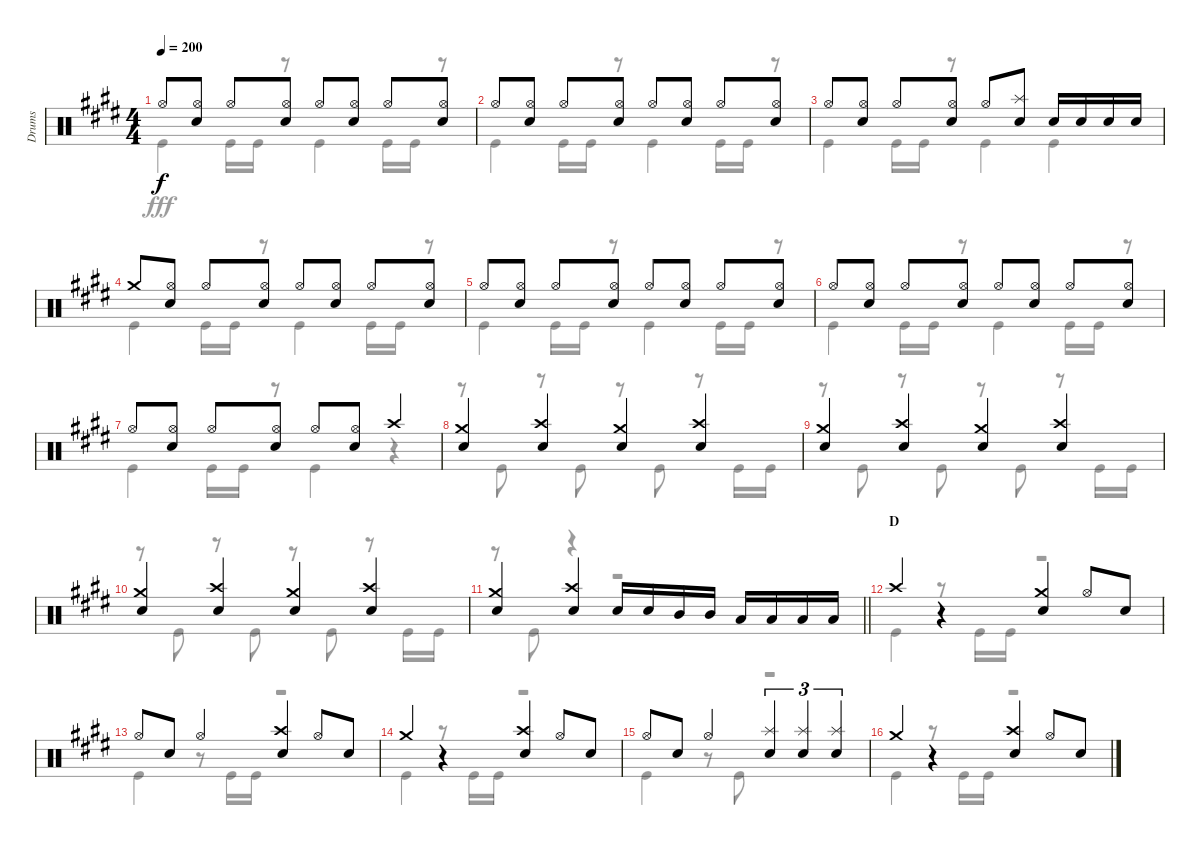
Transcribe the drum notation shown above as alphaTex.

\track ("Drums" "Drums") {instrument percussion}
\staff {score}
\articulation defaults
\voice
\ts (4 4)
\tempo 200
\clef neutral
\ks e "Hi-Hat (open)".8{dy f}
("Hi-Hat (open)" "Snare (hit) 2").8 "Hi-Hat (open)".8 ("Hi-Hat (open)" "Snare (hit) 2").8 "Hi-Hat (open)".8 ("Hi-Hat (open)" "Snare (hit) 2").8 "Hi-Hat (open)".8 ("Hi-Hat (open)" "Snare (hit) 2").8 |
"Hi-Hat (open)".8 ("Hi-Hat (open)" "Snare (hit) 2").8 "Hi-Hat (open)".8 ("Hi-Hat (open)" "Snare (hit) 2").8 "Hi-Hat (open)".8 ("Hi-Hat (open)" "Snare (hit) 2").8 "Hi-Hat (open)".8 ("Hi-Hat (open)" "Snare (hit) 2").8 |
"Hi-Hat (open)".8 ("Hi-Hat (open)" "Snare (hit) 2").8 "Hi-Hat (open)".8 ("Hi-Hat (open)" "Snare (hit) 2").8 "Hi-Hat (open)".8 ("Splash (hit)" "Snare (hit) 2").8 "Snare (hit) 2".16 "Snare (hit) 2".16 "Snare (hit) 2".16 "Snare (hit) 2".16 |
"Crash medium (hit)".8 ("Hi-Hat (open)" "Snare (hit) 2").8 "Hi-Hat (open)".8 ("Hi-Hat (open)" "Snare (hit) 2").8 "Hi-Hat (open)".8 ("Hi-Hat (open)" "Snare (hit) 2").8 "Hi-Hat (open)".8 ("Hi-Hat (open)" "Snare (hit) 2").8 |
"Hi-Hat (open)".8 ("Hi-Hat (open)" "Snare (hit) 2").8 "Hi-Hat (open)".8 ("Hi-Hat (open)" "Snare (hit) 2").8 "Hi-Hat (open)".8 ("Hi-Hat (open)" "Snare (hit) 2").8 "Hi-Hat (open)".8 ("Hi-Hat (open)" "Snare (hit) 2").8 |
"Hi-Hat (open)".8 ("Hi-Hat (open)" "Snare (hit) 2").8 "Hi-Hat (open)".8 ("Hi-Hat (open)" "Snare (hit) 2").8 "Hi-Hat (open)".8 ("Hi-Hat (open)" "Snare (hit) 2").8 "Hi-Hat (open)".8 ("Hi-Hat (open)" "Snare (hit) 2").8 |
"Hi-Hat (open)".8 ("Hi-Hat (open)" "Snare (hit) 2").8 "Hi-Hat (open)".8 ("Hi-Hat (open)" "Snare (hit) 2").8 "Hi-Hat (open)".8 ("Hi-Hat (open)" "Snare (hit) 2").8 "Crash high (hit)".4 |
("Crash medium (hit)" "Snare (hit) 2").4 ("Crash high (hit)" "Snare (hit) 2").4 ("Crash medium (hit)" "Snare (hit) 2").4 ("Crash high (hit)" "Snare (hit) 2").4 |
("Crash medium (hit)" "Snare (hit) 2").4 ("Crash high (hit)" "Snare (hit) 2").4 ("Crash medium (hit)" "Snare (hit) 2").4 ("Crash high (hit)" "Snare (hit) 2").4 |
("Crash medium (hit)" "Snare (hit) 2").4 ("Crash high (hit)" "Snare (hit) 2").4 ("Crash medium (hit)" "Snare (hit) 2").4 ("Crash high (hit)" "Snare (hit) 2").4 |
\barLineRight lightlight
("Crash medium (hit)" "Snare (hit) 2").4 ("Crash high (hit)" "Snare (hit) 2").4 "Snare (hit) 2".16 "Snare (hit) 2".16 "Mid Tom (hit)".16 "Mid Tom (hit)".16 "Low Tom (hit)".16 "Low Tom (hit)".16 "Low Tom (hit)".16 "Low Tom (hit)".16 |
\section ("" "D")
"Crash high (hit)".4 r.4 ("Crash medium (hit)" "Snare (hit) 2").4 "Hi-Hat (open)".8 "Snare (hit) 2".8 |
"Hi-Hat (open)".8 "Snare (hit) 2".8 "Hi-Hat (open)".4 ("Crash high (hit)" "Snare (hit) 2").4 "Hi-Hat (open)".8 "Snare (hit) 2".8 |
"Crash medium (hit)".4 r.4 ("Crash high (hit)" "Snare (hit) 2").4 "Hi-Hat (open)".8 "Snare (hit) 2".8 |
"Hi-Hat (open)".8 "Snare (hit) 2".8 "Hi-Hat (open)".4 ("Splash (hit)" "Snare (hit) 2").4{tu (3 2)} ("Splash (hit)" "Snare (hit) 2").4{tu (3 2)} ("Splash (hit)" "Snare (hit) 2").4{tu (3 2)} |
"Crash medium (hit)".4 r.4 ("Crash high (hit)" "Snare (hit) 2").4 "Hi-Hat (open)".8 "Snare (hit) 2".8
\voice
\clef neutral
\ottava regular
\simile none
\ks e "Kick (hit)".4{dy fff} "Kick (hit)".16 "Kick (hit)".16
r.8 "Kick (hit)".4 "Kick (hit)".16 "Kick (hit)".16 r.8 |
"Kick (hit)".4 "Kick (hit)".16 "Kick (hit)".16 r.8 "Kick (hit)".4 "Kick (hit)".16 "Kick (hit)".16 r.8 |
"Kick (hit)".4 "Kick (hit)".16 "Kick (hit)".16 r.8 "Kick (hit)".4 "Kick (hit)".4 |
"Kick (hit)".4 "Kick (hit)".16 "Kick (hit)".16 r.8 "Kick (hit)".4 "Kick (hit)".16 "Kick (hit)".16 r.8 |
"Kick (hit)".4 "Kick (hit)".16 "Kick (hit)".16 r.8 "Kick (hit)".4 "Kick (hit)".16 "Kick (hit)".16 r.8 |
"Kick (hit)".4 "Kick (hit)".16 "Kick (hit)".16 r.8 "Kick (hit)".4 "Kick (hit)".16 "Kick (hit)".16 r.8 |
"Kick (hit)".4 "Kick (hit)".16 "Kick (hit)".16 r.8 "Kick (hit)".4 r.4 |
r.8 "Kick (hit)".8 r.8 "Kick (hit)".8 r.8 "Kick (hit)".8 r.8 "Kick (hit)".16 "Kick (hit)".16 |
r.8 "Kick (hit)".8 r.8 "Kick (hit)".8 r.8 "Kick (hit)".8 r.8 "Kick (hit)".16 "Kick (hit)".16 |
r.8 "Kick (hit)".8 r.8 "Kick (hit)".8 r.8 "Kick (hit)".8 r.8 "Kick (hit)".16 "Kick (hit)".16 |
\barLineRight lightlight
r.8 "Kick (hit)".8 r.4 r.2 |
"Kick (hit)".4 r.8 "Kick (hit)".16 "Kick (hit)".16 r.2 |
"Kick (hit)".4 r.8 "Kick (hit)".16 "Kick (hit)".16 r.2 |
"Kick (hit)".4 r.8 "Kick (hit)".16 "Kick (hit)".16 r.2 |
"Kick (hit)".4 r.8 "Kick (hit)".8 r.2 |
"Kick (hit)".4 r.8 "Kick (hit)".16 "Kick (hit)".16 r.2
